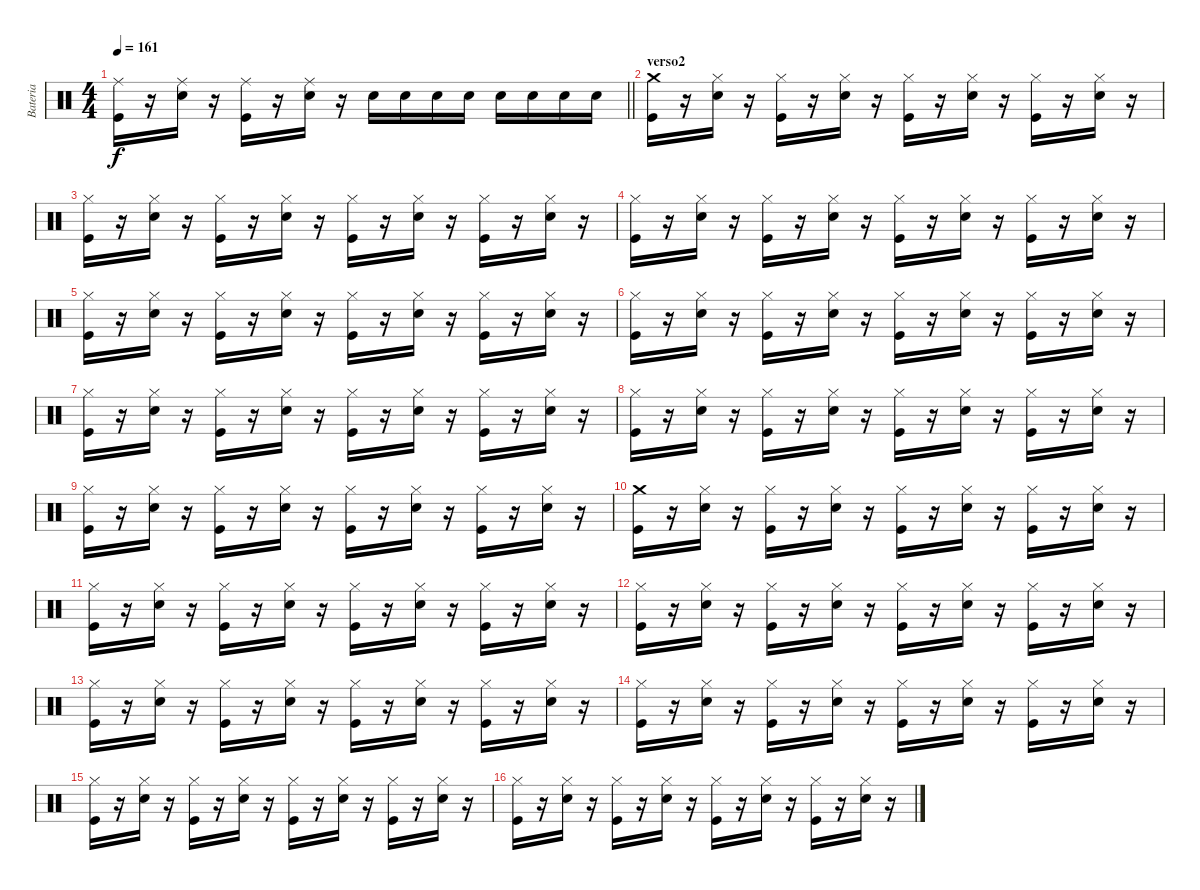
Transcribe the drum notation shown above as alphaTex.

\track ("Bateria" "Bateria") {instrument percussion}
\staff {score}
\articulation defaults
\ts (4 4)
\tempo 161
\clef neutral
\barLineRight lightlight
\ks c
("Ride (middle)" "Kick (hit)").16{dy f} r.16 ("Ride (middle)" "Snare (hit) 2").16 r.16 ("Ride (middle)" "Kick (hit)").16 r.16 ("Ride (middle)" "Snare (hit) 2").16 r.16 "Snare (hit) 2".16 "Snare (hit) 2".16 "Snare (hit) 2".16 "Snare (hit) 2".16 "Snare (hit) 2".16 "Snare (hit) 2".16 "Snare (hit) 2".16 "Snare (hit) 2".16 |
\section ("" "verso2")
("Crash medium (hit)" "Kick (hit)").16 r.16 ("Hi-Hat (closed)" "Snare (hit) 2").16 r.16 ("Hi-Hat (closed)" "Kick (hit)").16 r.16 ("Hi-Hat (closed)" "Snare (hit) 2").16 r.16 ("Hi-Hat (closed)" "Kick (hit)").16 r.16 ("Hi-Hat (closed)" "Snare (hit) 2").16 r.16 ("Hi-Hat (closed)" "Kick (hit)").16 r.16 ("Hi-Hat (closed)" "Snare (hit) 2").16 r.16 |
("Hi-Hat (closed)" "Kick (hit)").16 r.16 ("Hi-Hat (closed)" "Snare (hit) 2").16 r.16 ("Hi-Hat (closed)" "Kick (hit)").16 r.16 ("Hi-Hat (closed)" "Snare (hit) 2").16 r.16 ("Hi-Hat (closed)" "Kick (hit)").16 r.16 ("Hi-Hat (closed)" "Snare (hit) 2").16 r.16 ("Hi-Hat (closed)" "Kick (hit)").16 r.16 ("Hi-Hat (closed)" "Snare (hit) 2").16 r.16 |
("Hi-Hat (closed)" "Kick (hit)").16 r.16 ("Hi-Hat (closed)" "Snare (hit) 2").16 r.16 ("Hi-Hat (closed)" "Kick (hit)").16 r.16 ("Hi-Hat (closed)" "Snare (hit) 2").16 r.16 ("Hi-Hat (closed)" "Kick (hit)").16 r.16 ("Hi-Hat (closed)" "Snare (hit) 2").16 r.16 ("Hi-Hat (closed)" "Kick (hit)").16 r.16 ("Hi-Hat (closed)" "Snare (hit) 2").16 r.16 |
("Hi-Hat (closed)" "Kick (hit)").16 r.16 ("Hi-Hat (closed)" "Snare (hit) 2").16 r.16 ("Hi-Hat (closed)" "Kick (hit)").16 r.16 ("Hi-Hat (closed)" "Snare (hit) 2").16 r.16 ("Hi-Hat (closed)" "Kick (hit)").16 r.16 ("Hi-Hat (closed)" "Snare (hit) 2").16 r.16 ("Hi-Hat (closed)" "Kick (hit)").16 r.16 ("Hi-Hat (closed)" "Snare (hit) 2").16 r.16 |
("Hi-Hat (closed)" "Kick (hit)").16 r.16 ("Hi-Hat (closed)" "Snare (hit) 2").16 r.16 ("Hi-Hat (closed)" "Kick (hit)").16 r.16 ("Hi-Hat (closed)" "Snare (hit) 2").16 r.16 ("Hi-Hat (closed)" "Kick (hit)").16 r.16 ("Hi-Hat (closed)" "Snare (hit) 2").16 r.16 ("Hi-Hat (closed)" "Kick (hit)").16 r.16 ("Hi-Hat (closed)" "Snare (hit) 2").16 r.16 |
("Hi-Hat (closed)" "Kick (hit)").16 r.16 ("Hi-Hat (closed)" "Snare (hit) 2").16 r.16 ("Hi-Hat (closed)" "Kick (hit)").16 r.16 ("Hi-Hat (closed)" "Snare (hit) 2").16 r.16 ("Hi-Hat (closed)" "Kick (hit)").16 r.16 ("Hi-Hat (closed)" "Snare (hit) 2").16 r.16 ("Hi-Hat (closed)" "Kick (hit)").16 r.16 ("Hi-Hat (closed)" "Snare (hit) 2").16 r.16 |
("Hi-Hat (closed)" "Kick (hit)").16 r.16 ("Hi-Hat (closed)" "Snare (hit) 2").16 r.16 ("Hi-Hat (closed)" "Kick (hit)").16 r.16 ("Hi-Hat (closed)" "Snare (hit) 2").16 r.16 ("Hi-Hat (closed)" "Kick (hit)").16 r.16 ("Hi-Hat (closed)" "Snare (hit) 2").16 r.16 ("Hi-Hat (closed)" "Kick (hit)").16 r.16 ("Hi-Hat (closed)" "Snare (hit) 2").16 r.16 |
("Hi-Hat (closed)" "Kick (hit)").16 r.16 ("Hi-Hat (closed)" "Snare (hit) 2").16 r.16 ("Hi-Hat (closed)" "Kick (hit)").16 r.16 ("Hi-Hat (closed)" "Snare (hit) 2").16 r.16 ("Hi-Hat (closed)" "Kick (hit)").16 r.16 ("Hi-Hat (closed)" "Snare (hit) 2").16 r.16 ("Hi-Hat (closed)" "Kick (hit)").16 r.16 ("Hi-Hat (closed)" "Snare (hit) 2").16 r.16 |
("Crash medium (hit)" "Kick (hit)").16 r.16 ("Hi-Hat (closed)" "Snare (hit) 2").16 r.16 ("Hi-Hat (closed)" "Kick (hit)").16 r.16 ("Hi-Hat (closed)" "Snare (hit) 2").16 r.16 ("Hi-Hat (closed)" "Kick (hit)").16 r.16 ("Hi-Hat (closed)" "Snare (hit) 2").16 r.16 ("Hi-Hat (closed)" "Kick (hit)").16 r.16 ("Hi-Hat (closed)" "Snare (hit) 2").16 r.16 |
("Hi-Hat (closed)" "Kick (hit)").16 r.16 ("Hi-Hat (closed)" "Snare (hit) 2").16 r.16 ("Hi-Hat (closed)" "Kick (hit)").16 r.16 ("Hi-Hat (closed)" "Snare (hit) 2").16 r.16 ("Hi-Hat (closed)" "Kick (hit)").16 r.16 ("Hi-Hat (closed)" "Snare (hit) 2").16 r.16 ("Hi-Hat (closed)" "Kick (hit)").16 r.16 ("Hi-Hat (closed)" "Snare (hit) 2").16 r.16 |
("Hi-Hat (closed)" "Kick (hit)").16 r.16 ("Hi-Hat (closed)" "Snare (hit) 2").16 r.16 ("Hi-Hat (closed)" "Kick (hit)").16 r.16 ("Hi-Hat (closed)" "Snare (hit) 2").16 r.16 ("Hi-Hat (closed)" "Kick (hit)").16 r.16 ("Hi-Hat (closed)" "Snare (hit) 2").16 r.16 ("Hi-Hat (closed)" "Kick (hit)").16 r.16 ("Hi-Hat (closed)" "Snare (hit) 2").16 r.16 |
("Hi-Hat (closed)" "Kick (hit)").16 r.16 ("Hi-Hat (closed)" "Snare (hit) 2").16 r.16 ("Hi-Hat (closed)" "Kick (hit)").16 r.16 ("Hi-Hat (closed)" "Snare (hit) 2").16 r.16 ("Hi-Hat (closed)" "Kick (hit)").16 r.16 ("Hi-Hat (closed)" "Snare (hit) 2").16 r.16 ("Hi-Hat (closed)" "Kick (hit)").16 r.16 ("Hi-Hat (closed)" "Snare (hit) 2").16 r.16 |
("Hi-Hat (closed)" "Kick (hit)").16 r.16 ("Hi-Hat (closed)" "Snare (hit) 2").16 r.16 ("Hi-Hat (closed)" "Kick (hit)").16 r.16 ("Hi-Hat (closed)" "Snare (hit) 2").16 r.16 ("Hi-Hat (closed)" "Kick (hit)").16 r.16 ("Hi-Hat (closed)" "Snare (hit) 2").16 r.16 ("Hi-Hat (closed)" "Kick (hit)").16 r.16 ("Hi-Hat (closed)" "Snare (hit) 2").16 r.16 |
("Hi-Hat (closed)" "Kick (hit)").16 r.16 ("Hi-Hat (closed)" "Snare (hit) 2").16 r.16 ("Hi-Hat (closed)" "Kick (hit)").16 r.16 ("Hi-Hat (closed)" "Snare (hit) 2").16 r.16 ("Hi-Hat (closed)" "Kick (hit)").16 r.16 ("Hi-Hat (closed)" "Snare (hit) 2").16 r.16 ("Hi-Hat (closed)" "Kick (hit)").16 r.16 ("Hi-Hat (closed)" "Snare (hit) 2").16 r.16 |
("Hi-Hat (closed)" "Kick (hit)").16 r.16 ("Hi-Hat (closed)" "Snare (hit) 2").16 r.16 ("Hi-Hat (closed)" "Kick (hit)").16 r.16 ("Hi-Hat (closed)" "Snare (hit) 2").16 r.16 ("Hi-Hat (closed)" "Kick (hit)").16 r.16 ("Hi-Hat (closed)" "Snare (hit) 2").16 r.16 ("Hi-Hat (closed)" "Kick (hit)").16 r.16 ("Hi-Hat (closed)" "Snare (hit) 2").16 r.16
